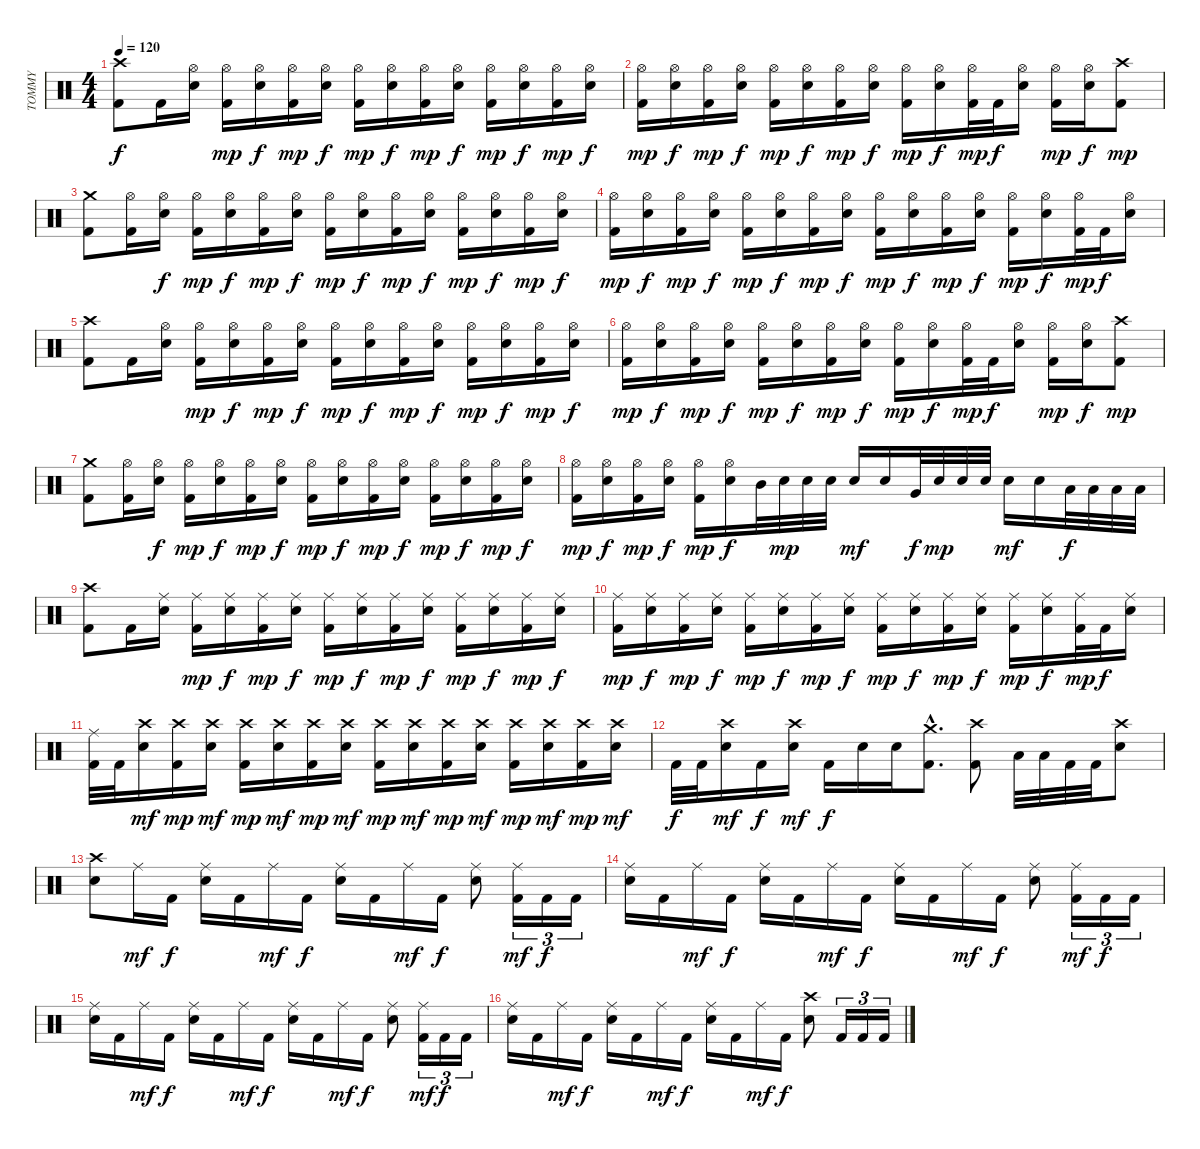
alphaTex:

\track ("TOMMY" "TOMMY") {instrument percussion}
\staff {score}
\articulation defaults
\ts (4 4)
\tempo 120
\clef neutral
\ks c
("Kick (hit) 2" "Crash high (hit)").8{dy f} "Kick (hit) 2".16 ("Snare (hit) 2" "Hi-Hat (open)").16 ("Kick (hit) 2" "Hi-Hat (open)").16{dy mp} ("Snare (hit) 2" "Hi-Hat (open)").16{dy f} ("Kick (hit) 2" "Hi-Hat (open)").16{dy mp} ("Snare (hit) 2" "Hi-Hat (open)").16{dy f} ("Kick (hit) 2" "Hi-Hat (open)").16{dy mp} ("Snare (hit) 2" "Hi-Hat (open)").16{dy f} ("Kick (hit) 2" "Hi-Hat (open)").16{dy mp} ("Snare (hit) 2" "Hi-Hat (open)").16{dy f} ("Kick (hit) 2" "Hi-Hat (open)").16{dy mp} ("Snare (hit) 2" "Hi-Hat (open)").16{dy f} ("Kick (hit) 2" "Hi-Hat (open)").16{dy mp} ("Snare (hit) 2" "Hi-Hat (open)").16{dy f} |
("Kick (hit) 2" "Hi-Hat (open)").16{dy mp} ("Snare (hit) 2" "Hi-Hat (open)").16{dy f} ("Kick (hit) 2" "Hi-Hat (open)").16{dy mp} ("Snare (hit) 2" "Hi-Hat (open)").16{dy f} ("Kick (hit) 2" "Hi-Hat (open)").16{dy mp} ("Snare (hit) 2" "Hi-Hat (open)").16{dy f} ("Kick (hit) 2" "Hi-Hat (open)").16{dy mp} ("Snare (hit) 2" "Hi-Hat (open)").16{dy f} ("Kick (hit) 2" "Hi-Hat (open)").16{dy mp} ("Snare (hit) 2" "Hi-Hat (open)").16{dy f} ("Kick (hit) 2" "Hi-Hat (open)").32{dy mp} "Kick (hit) 2".32{dy f} ("Snare (hit) 2" "Hi-Hat (open)").16 ("Kick (hit) 2" "Hi-Hat (open)").16{dy mp} ("Snare (hit) 2" "Hi-Hat (open)").16{dy f} ("Kick (hit) 2" "Crash high (hit)").8{dy mp} |
("Kick (hit) 2" "Crash medium (hit)").8 ("Kick (hit) 2" "Hi-Hat (open)").16 ("Snare (hit) 2" "Hi-Hat (open)").16{dy f} ("Kick (hit) 2" "Hi-Hat (open)").16{dy mp} ("Snare (hit) 2" "Hi-Hat (open)").16{dy f} ("Kick (hit) 2" "Hi-Hat (open)").16{dy mp} ("Snare (hit) 2" "Hi-Hat (open)").16{dy f} ("Kick (hit) 2" "Hi-Hat (open)").16{dy mp} ("Snare (hit) 2" "Hi-Hat (open)").16{dy f} ("Kick (hit) 2" "Hi-Hat (open)").16{dy mp} ("Snare (hit) 2" "Hi-Hat (open)").16{dy f} ("Kick (hit) 2" "Hi-Hat (open)").16{dy mp} ("Snare (hit) 2" "Hi-Hat (open)").16{dy f} ("Kick (hit) 2" "Hi-Hat (open)").16{dy mp} ("Snare (hit) 2" "Hi-Hat (open)").16{dy f} |
("Kick (hit) 2" "Hi-Hat (open)").16{dy mp} ("Snare (hit) 2" "Hi-Hat (open)").16{dy f} ("Kick (hit) 2" "Hi-Hat (open)").16{dy mp} ("Snare (hit) 2" "Hi-Hat (open)").16{dy f} ("Kick (hit) 2" "Hi-Hat (open)").16{dy mp} ("Snare (hit) 2" "Hi-Hat (open)").16{dy f} ("Kick (hit) 2" "Hi-Hat (open)").16{dy mp} ("Snare (hit) 2" "Hi-Hat (open)").16{dy f} ("Kick (hit) 2" "Hi-Hat (open)").16{dy mp} ("Snare (hit) 2" "Hi-Hat (open)").16{dy f} ("Kick (hit) 2" "Hi-Hat (open)").16{dy mp} ("Snare (hit) 2" "Hi-Hat (open)").16{dy f} ("Kick (hit) 2" "Hi-Hat (open)").16{dy mp} ("Snare (hit) 2" "Hi-Hat (open)").16{dy f} ("Kick (hit) 2" "Hi-Hat (open)").32{dy mp} "Kick (hit) 2".32{dy f} ("Snare (hit) 2" "Hi-Hat (open)").16 |
("Kick (hit) 2" "Crash high (hit)").8 "Kick (hit) 2".16 ("Snare (hit) 2" "Hi-Hat (open)").16 ("Kick (hit) 2" "Hi-Hat (open)").16{dy mp} ("Snare (hit) 2" "Hi-Hat (open)").16{dy f} ("Kick (hit) 2" "Hi-Hat (open)").16{dy mp} ("Snare (hit) 2" "Hi-Hat (open)").16{dy f} ("Kick (hit) 2" "Hi-Hat (open)").16{dy mp} ("Snare (hit) 2" "Hi-Hat (open)").16{dy f} ("Kick (hit) 2" "Hi-Hat (open)").16{dy mp} ("Snare (hit) 2" "Hi-Hat (open)").16{dy f} ("Kick (hit) 2" "Hi-Hat (open)").16{dy mp} ("Snare (hit) 2" "Hi-Hat (open)").16{dy f} ("Kick (hit) 2" "Hi-Hat (open)").16{dy mp} ("Snare (hit) 2" "Hi-Hat (open)").16{dy f} |
("Kick (hit) 2" "Hi-Hat (open)").16{dy mp} ("Snare (hit) 2" "Hi-Hat (open)").16{dy f} ("Kick (hit) 2" "Hi-Hat (open)").16{dy mp} ("Snare (hit) 2" "Hi-Hat (open)").16{dy f} ("Kick (hit) 2" "Hi-Hat (open)").16{dy mp} ("Snare (hit) 2" "Hi-Hat (open)").16{dy f} ("Kick (hit) 2" "Hi-Hat (open)").16{dy mp} ("Snare (hit) 2" "Hi-Hat (open)").16{dy f} ("Kick (hit) 2" "Hi-Hat (open)").16{dy mp} ("Snare (hit) 2" "Hi-Hat (open)").16{dy f} ("Kick (hit) 2" "Hi-Hat (open)").32{dy mp} "Kick (hit) 2".32{dy f} ("Snare (hit) 2" "Hi-Hat (open)").16 ("Kick (hit) 2" "Hi-Hat (open)").16{dy mp} ("Snare (hit) 2" "Hi-Hat (open)").16{dy f} ("Kick (hit) 2" "Crash high (hit)").8{dy mp} |
("Kick (hit) 2" "Crash medium (hit)").8 ("Kick (hit) 2" "Hi-Hat (open)").16 ("Snare (hit) 2" "Hi-Hat (open)").16{dy f} ("Kick (hit) 2" "Hi-Hat (open)").16{dy mp} ("Snare (hit) 2" "Hi-Hat (open)").16{dy f} ("Kick (hit) 2" "Hi-Hat (open)").16{dy mp} ("Snare (hit) 2" "Hi-Hat (open)").16{dy f} ("Kick (hit) 2" "Hi-Hat (open)").16{dy mp} ("Snare (hit) 2" "Hi-Hat (open)").16{dy f} ("Kick (hit) 2" "Hi-Hat (open)").16{dy mp} ("Snare (hit) 2" "Hi-Hat (open)").16{dy f} ("Kick (hit) 2" "Hi-Hat (open)").16{dy mp} ("Snare (hit) 2" "Hi-Hat (open)").16{dy f} ("Kick (hit) 2" "Hi-Hat (open)").16{dy mp} ("Snare (hit) 2" "Hi-Hat (open)").16{dy f} |
("Kick (hit) 2" "Hi-Hat (open)").16{dy mp} ("Snare (hit) 2" "Hi-Hat (open)").16{dy f} ("Kick (hit) 2" "Hi-Hat (open)").16{dy mp} ("Snare (hit) 2" "Hi-Hat (open)").16{dy f} ("Kick (hit) 2" "Hi-Hat (open)").16{dy mp} ("Snare (hit) 2" "Hi-Hat (open)").16{dy f} "Mid Tom (hit)".32 "Snare (hit) 2".32{dy mp} "Snare (hit) 2".32 "Snare (hit) 2".32 "Snare (hit) 2".16{dy mf} "Snare (hit) 2".16 "Very Low Tom (hit)".32{dy f} "Snare (hit) 2".32{dy mp} "Snare (hit) 2".32 "Snare (hit) 2".32 "Snare (hit) 2".16{dy mf} "Snare (hit) 2".16 "Low Floor Tom (hit)".32{dy f} "Low Floor Tom (hit)".32 "Low Floor Tom (hit)".32 "Low Floor Tom (hit)".32 |
("Kick (hit) 2" "Crash high (hit)").8 "Kick (hit) 2".16 ("Snare (hit) 2" "Ride (middle)").16 ("Kick (hit) 2" "Ride (middle)").16{dy mp} ("Snare (hit) 2" "Ride (middle)").16{dy f} ("Kick (hit) 2" "Ride (middle)").16{dy mp} ("Snare (hit) 2" "Ride (middle)").16{dy f} ("Kick (hit) 2" "Ride (middle)").16{dy mp} ("Snare (hit) 2" "Ride (middle)").16{dy f} ("Kick (hit) 2" "Ride (middle)").16{dy mp} ("Snare (hit) 2" "Ride (middle)").16{dy f} ("Kick (hit) 2" "Ride (middle)").16{dy mp} ("Snare (hit) 2" "Ride (middle)").16{dy f} ("Kick (hit) 2" "Ride (middle)").16{dy mp} ("Snare (hit) 2" "Ride (middle)").16{dy f} |
("Kick (hit) 2" "Ride (middle)").16{dy mp} ("Snare (hit) 2" "Ride (middle)").16{dy f} ("Kick (hit) 2" "Ride (middle)").16{dy mp} ("Snare (hit) 2" "Ride (middle)").16{dy f} ("Kick (hit) 2" "Ride (middle)").16{dy mp} ("Snare (hit) 2" "Ride (middle)").16{dy f} ("Kick (hit) 2" "Ride (middle)").16{dy mp} ("Snare (hit) 2" "Ride (middle)").16{dy f} ("Kick (hit) 2" "Ride (middle)").16{dy mp} ("Snare (hit) 2" "Ride (middle)").16{dy f} ("Kick (hit) 2" "Ride (middle)").16{dy mp} ("Snare (hit) 2" "Ride (middle)").16{dy f} ("Kick (hit) 2" "Ride (middle)").16{dy mp} ("Snare (hit) 2" "Ride (middle)").16{dy f} ("Kick (hit) 2" "Ride (middle)").32{dy mp} "Kick (hit) 2".32{dy f} ("Snare (hit) 2" "Ride (middle)").16 |
("Kick (hit) 2" "Ride (middle)").32 "Kick (hit) 2".32 ("Snare (hit) 2" "Crash high (hit)").16{dy mf} ("Kick (hit) 2" "Crash high (hit)").16{dy mp} ("Snare (hit) 2" "Crash high (hit)").16{dy mf} ("Kick (hit) 2" "Crash high (hit)").16{dy mp} ("Snare (hit) 2" "Crash high (hit)").16{dy mf} ("Kick (hit) 2" "Crash high (hit)").16{dy mp} ("Snare (hit) 2" "Crash high (hit)").16{dy mf} ("Kick (hit) 2" "Crash high (hit)").16{dy mp} ("Snare (hit) 2" "Crash high (hit)").16{dy mf} ("Kick (hit) 2" "Crash high (hit)").16{dy mp} ("Snare (hit) 2" "Crash high (hit)").16{dy mf} ("Kick (hit) 2" "Crash high (hit)").16{dy mp} ("Snare (hit) 2" "Crash high (hit)").16{dy mf} ("Kick (hit) 2" "Crash high (hit)").16{dy mp} ("Snare (hit) 2" "Crash high (hit)").16{dy mf} |
"Kick (hit) 2".32{dy f} "Kick (hit) 2".32 ("Snare (hit) 2" "Crash high (hit)").16{dy mf} "Kick (hit) 2".16{dy f} ("Snare (hit) 2" "Crash high (hit)").16{dy mf} "Kick (hit) 2".16{dy f} "Snare (hit) 2".16 "Snare (hit) 2".16 ("Kick (hit) 2"{hac} "Crash medium (hit)"{hac}).8{d} ("Kick (hit) 2" "Crash high (hit)").8 "Low Floor Tom (hit)".32 "Low Floor Tom (hit)".32 "Kick (hit) 2".32 "Kick (hit) 2".32 ("Snare (hit) 2" "Crash high (hit)").8 |
("Snare (hit) 2" "Crash high (hit)").8 "Ride (middle)".16{dy mf} "Kick (hit) 2".16{dy f} ("Snare (hit) 2" "Ride (middle)").16 "Kick (hit) 2".16 "Ride (middle)".16{dy mf} "Kick (hit) 2".16{dy f} ("Snare (hit) 2" "Ride (middle)").16 "Kick (hit) 2".16 "Ride (middle)".16{dy mf} "Kick (hit) 2".16{dy f} ("Snare (hit) 2" "Ride (middle)").8 ("Kick (hit) 2" "Ride (middle)").16{tu (3 2) dy mf} "Kick (hit) 2".16{tu (3 2) dy f} "Kick (hit) 2".16{tu (3 2)} |
("Snare (hit) 2" "Ride (middle)").16 "Kick (hit) 2".16 "Ride (middle)".16{dy mf} "Kick (hit) 2".16{dy f} ("Snare (hit) 2" "Ride (middle)").16 "Kick (hit) 2".16 "Ride (middle)".16{dy mf} "Kick (hit) 2".16{dy f} ("Snare (hit) 2" "Ride (middle)").16 "Kick (hit) 2".16 "Ride (middle)".16{dy mf} "Kick (hit) 2".16{dy f} ("Snare (hit) 2" "Ride (middle)").8 ("Kick (hit) 2" "Ride (middle)").16{tu (3 2) dy mf} "Kick (hit) 2".16{tu (3 2) dy f} "Kick (hit) 2".16{tu (3 2)} |
("Snare (hit) 2" "Ride (middle)").16 "Kick (hit) 2".16 "Ride (middle)".16{dy mf} "Kick (hit) 2".16{dy f} ("Snare (hit) 2" "Ride (middle)").16 "Kick (hit) 2".16 "Ride (middle)".16{dy mf} "Kick (hit) 2".16{dy f} ("Snare (hit) 2" "Ride (middle)").16 "Kick (hit) 2".16 "Ride (middle)".16{dy mf} "Kick (hit) 2".16{dy f} ("Snare (hit) 2" "Ride (middle)").8 ("Kick (hit) 2" "Ride (middle)").16{tu (3 2) dy mf} "Kick (hit) 2".16{tu (3 2) dy f} "Kick (hit) 2".16{tu (3 2)} |
("Snare (hit) 2" "Ride (middle)").16 "Kick (hit) 2".16 "Ride (middle)".16{dy mf} "Kick (hit) 2".16{dy f} ("Snare (hit) 2" "Ride (middle)").16 "Kick (hit) 2".16 "Ride (middle)".16{dy mf} "Kick (hit) 2".16{dy f} ("Snare (hit) 2" "Ride (middle)").16 "Kick (hit) 2".16 "Ride (middle)".16{dy mf} "Kick (hit) 2".16{dy f} ("Snare (hit) 2" "Crash high (hit)").8 "Kick (hit) 2".16{tu (3 2)} "Kick (hit) 2".16{tu (3 2)} "Kick (hit) 2".16{tu (3 2)}
